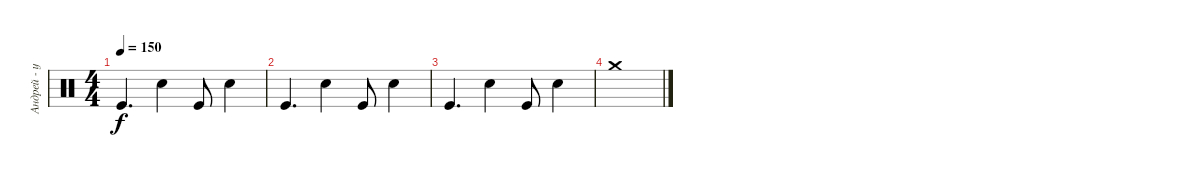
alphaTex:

\track ("Андрей - ударные" "Андрей - у") {instrument percussion}
\staff
\articulation defaults
\ts (4 4)
\tempo 150
\clef neutral
\ks c "Kick (hit)".4{d dy f} "Snare (hit) 2".4 "Kick (hit)".8 "Snare (hit) 2".4
|
"Kick (hit)".4{d} "Snare (hit) 2".4 "Kick (hit)".8 "Snare (hit) 2".4 |
"Kick (hit)".4{d} "Snare (hit) 2".4 "Kick (hit)".8 "Snare (hit) 2".4 |
"Crash medium (hit)".1
